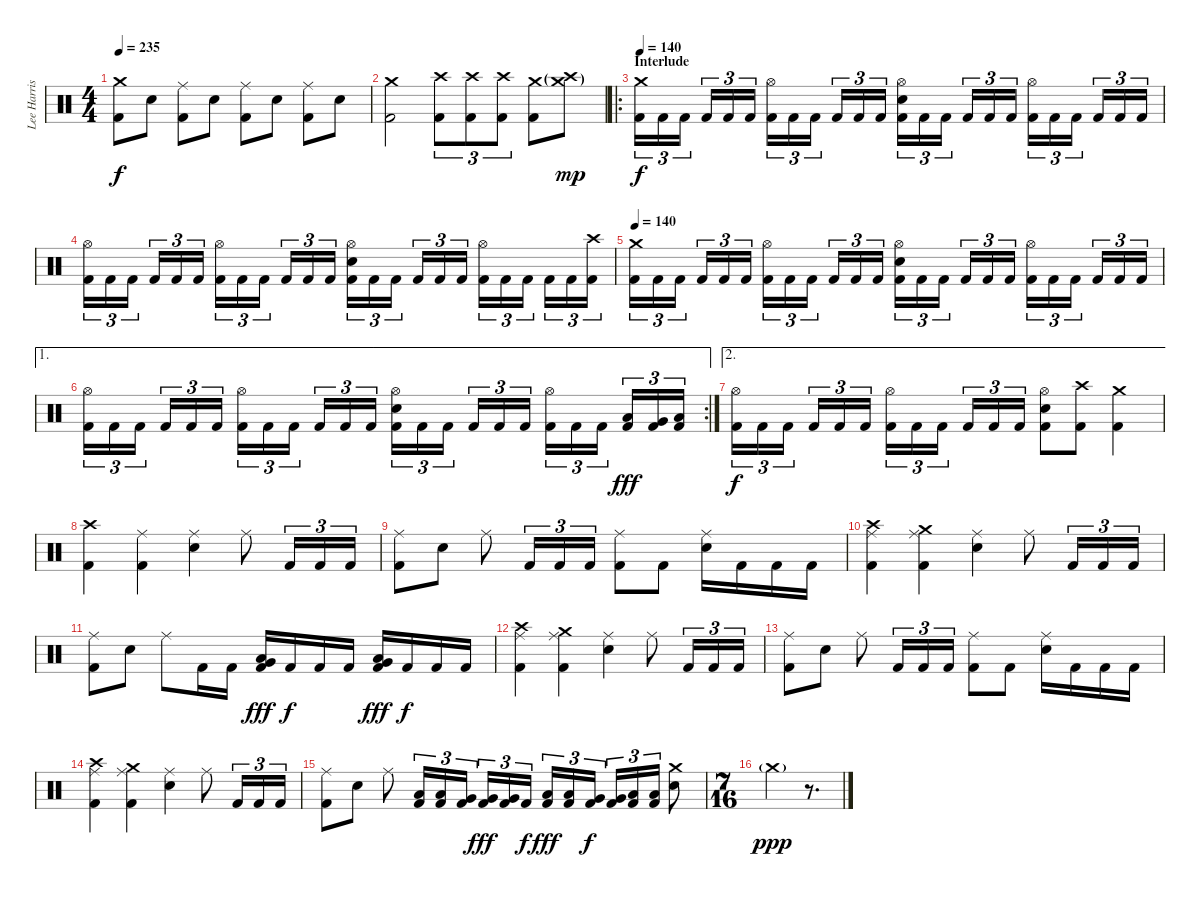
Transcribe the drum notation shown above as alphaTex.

\track ("Lee Harrison" "Lee Harris") {instrument percussion}
\staff {score}
\articulation defaults
\ts (4 4)
\tempo 235
\clef neutral
\ks c
("Crash medium (hit)" "Kick (hit) 2").8{dy f} "Electric Snare (hit)".8 ("Ride (middle)" "Kick (hit) 2").8 "Electric Snare (hit)".8 ("Ride (middle)" "Kick (hit) 2").8 "Electric Snare (hit)".8 ("Ride (middle)" "Kick (hit) 2").8 "Electric Snare (hit)".8 |
("Crash medium (hit)" "Kick (hit) 2").2 ("Crash high (hit)" "Kick (hit) 2").8{tu (3 2)} ("Crash high (hit)" "Kick (hit) 2").8{tu (3 2)} ("Crash high (hit)" "Kick (hit) 2").8{tu (3 2)} ("Crash medium (hit)" "Kick (hit) 2").8 ("Crash medium (hit)"{g} "Crash high (hit)"{g}).8{dy mp} |
\ro
\section ("" "Interlude")
\tempo 140
("Crash medium (hit)" "Kick (hit) 2").16{tu (3 2) dy f} "Kick (hit) 2".16{tu (3 2)} "Kick (hit) 2".16{tu (3 2)} "Kick (hit) 2".16{tu (3 2)} "Kick (hit) 2".16{tu (3 2)} "Kick (hit) 2".16{tu (3 2)} ("Hi-Hat (open)" "Kick (hit) 2").16{tu (3 2)} "Kick (hit) 2".16{tu (3 2)} "Kick (hit) 2".16{tu (3 2)} "Kick (hit) 2".16{tu (3 2)} "Kick (hit) 2".16{tu (3 2)} "Kick (hit) 2".16{tu (3 2)} ("Hi-Hat (open)" "Electric Snare (hit)" "Kick (hit) 2").16{tu (3 2)} "Kick (hit) 2".16{tu (3 2)} "Kick (hit) 2".16{tu (3 2)} "Kick (hit) 2".16{tu (3 2)} "Kick (hit) 2".16{tu (3 2)} "Kick (hit) 2".16{tu (3 2)} ("Hi-Hat (open)" "Kick (hit) 2").16{tu (3 2)} "Kick (hit) 2".16{tu (3 2)} "Kick (hit) 2".16{tu (3 2)} "Kick (hit) 2".16{tu (3 2)} "Kick (hit) 2".16{tu (3 2)} "Kick (hit) 2".16{tu (3 2)} |
("Hi-Hat (open)" "Kick (hit) 2").16{tu (3 2)} "Kick (hit) 2".16{tu (3 2)} "Kick (hit) 2".16{tu (3 2)} "Kick (hit) 2".16{tu (3 2)} "Kick (hit) 2".16{tu (3 2)} "Kick (hit) 2".16{tu (3 2)} ("Hi-Hat (open)" "Kick (hit) 2").16{tu (3 2)} "Kick (hit) 2".16{tu (3 2)} "Kick (hit) 2".16{tu (3 2)} "Kick (hit) 2".16{tu (3 2)} "Kick (hit) 2".16{tu (3 2)} "Kick (hit) 2".16{tu (3 2)} ("Hi-Hat (open)" "Electric Snare (hit)" "Kick (hit) 2").16{tu (3 2)} "Kick (hit) 2".16{tu (3 2)} "Kick (hit) 2".16{tu (3 2)} "Kick (hit) 2".16{tu (3 2)} "Kick (hit) 2".16{tu (3 2)} "Kick (hit) 2".16{tu (3 2)} ("Hi-Hat (open)" "Kick (hit) 2").16{tu (3 2)} "Kick (hit) 2".16{tu (3 2)} "Kick (hit) 2".16{tu (3 2)} "Kick (hit) 2".16{tu (3 2)} "Kick (hit) 2".16{tu (3 2)} ("Crash high (hit)" "Kick (hit) 2").16{tu (3 2)} |
\tempo 140
("Crash medium (hit)" "Kick (hit) 2").16{tu (3 2)} "Kick (hit) 2".16{tu (3 2)} "Kick (hit) 2".16{tu (3 2)} "Kick (hit) 2".16{tu (3 2)} "Kick (hit) 2".16{tu (3 2)} "Kick (hit) 2".16{tu (3 2)} ("Hi-Hat (open)" "Kick (hit) 2").16{tu (3 2)} "Kick (hit) 2".16{tu (3 2)} "Kick (hit) 2".16{tu (3 2)} "Kick (hit) 2".16{tu (3 2)} "Kick (hit) 2".16{tu (3 2)} "Kick (hit) 2".16{tu (3 2)} ("Hi-Hat (open)" "Electric Snare (hit)" "Kick (hit) 2").16{tu (3 2)} "Kick (hit) 2".16{tu (3 2)} "Kick (hit) 2".16{tu (3 2)} "Kick (hit) 2".16{tu (3 2)} "Kick (hit) 2".16{tu (3 2)} "Kick (hit) 2".16{tu (3 2)} ("Hi-Hat (open)" "Kick (hit) 2").16{tu (3 2)} "Kick (hit) 2".16{tu (3 2)} "Kick (hit) 2".16{tu (3 2)} "Kick (hit) 2".16{tu (3 2)} "Kick (hit) 2".16{tu (3 2)} "Kick (hit) 2".16{tu (3 2)} |
\ae 1
\rc 2
("Hi-Hat (open)" "Kick (hit) 2").16{tu (3 2)} "Kick (hit) 2".16{tu (3 2)} "Kick (hit) 2".16{tu (3 2)} "Kick (hit) 2".16{tu (3 2)} "Kick (hit) 2".16{tu (3 2)} "Kick (hit) 2".16{tu (3 2)} ("Hi-Hat (open)" "Kick (hit) 2").16{tu (3 2)} "Kick (hit) 2".16{tu (3 2)} "Kick (hit) 2".16{tu (3 2)} "Kick (hit) 2".16{tu (3 2)} "Kick (hit) 2".16{tu (3 2)} "Kick (hit) 2".16{tu (3 2)} ("Hi-Hat (open)" "Electric Snare (hit)" "Kick (hit) 2").16{tu (3 2)} "Kick (hit) 2".16{tu (3 2)} "Kick (hit) 2".16{tu (3 2)} "Kick (hit) 2".16{tu (3 2)} "Kick (hit) 2".16{tu (3 2)} "Kick (hit) 2".16{tu (3 2)} ("Hi-Hat (open)" "Kick (hit) 2").16{tu (3 2)} "Kick (hit) 2".16{tu (3 2)} "Kick (hit) 2".16{tu (3 2)} ("Low Tom (hit)" "Kick (hit) 2").16{tu (3 2) dy fff} ("Very Low Tom (hit)" "Kick (hit) 2").16{tu (3 2)} ("Low Floor Tom (hit)" "Kick (hit) 2").16{tu (3 2)} |
\ae 2
("Hi-Hat (open)" "Kick (hit) 2").16{tu (3 2) dy f} "Kick (hit) 2".16{tu (3 2)} "Kick (hit) 2".16{tu (3 2)} "Kick (hit) 2".16{tu (3 2)} "Kick (hit) 2".16{tu (3 2)} "Kick (hit) 2".16{tu (3 2)} ("Hi-Hat (open)" "Kick (hit) 2").16{tu (3 2)} "Kick (hit) 2".16{tu (3 2)} "Kick (hit) 2".16{tu (3 2)} "Kick (hit) 2".16{tu (3 2)} "Kick (hit) 2".16{tu (3 2)} "Kick (hit) 2".16{tu (3 2)} ("Hi-Hat (open)" "Electric Snare (hit)" "Kick (hit) 2").8 ("Crash high (hit)" "Kick (hit) 2").8 ("Crash medium (hit)" "Kick (hit) 2").4 |
("Crash high (hit)" "Kick (hit) 2").4 ("Ride (middle)" "Kick (hit) 2").4 ("Ride (middle)" "Electric Snare (hit)").4 "Ride (middle)".8 "Kick (hit) 2".16{tu (3 2)} "Kick (hit) 2".16{tu (3 2)} "Kick (hit) 2".16{tu (3 2)} |
("Ride (middle)" "Kick (hit) 2").8 "Electric Snare (hit)".8 "Ride (middle)".8 "Kick (hit) 2".16{tu (3 2)} "Kick (hit) 2".16{tu (3 2)} "Kick (hit) 2".16{tu (3 2)} ("Ride (middle)" "Kick (hit) 2").8 "Kick (hit) 2".8 ("Ride (middle)" "Electric Snare (hit)").16 "Kick (hit) 2".16 "Kick (hit) 2".16 "Kick (hit) 2".16 |
("Crash high (hit)" "Ride (middle)" "Kick (hit) 2").4 ("Crash medium (hit)" "Ride (middle)" "Kick (hit) 2").4 ("Ride (middle)" "Electric Snare (hit)").4 "Ride (middle)".8 "Kick (hit) 2".16{tu (3 2)} "Kick (hit) 2".16{tu (3 2)} "Kick (hit) 2".16{tu (3 2)} |
("Ride (middle)" "Kick (hit) 2").8 "Electric Snare (hit)".8 "Ride (middle)".8 "Kick (hit) 2".16 "Kick (hit) 2".16 ("Low Tom (hit)" "Very Low Tom (hit)" "Kick (hit) 2").16{dy fff} "Kick (hit) 2".16{dy f} "Kick (hit) 2".16 "Kick (hit) 2".16 ("Very Low Tom (hit)" "Low Floor Tom (hit)" "Kick (hit) 2").16{dy fff} "Kick (hit) 2".16{dy f} "Kick (hit) 2".16 "Kick (hit) 2".16 |
("Crash high (hit)" "Ride (middle)" "Kick (hit) 2").4 ("Crash medium (hit)" "Ride (middle)" "Kick (hit) 2").4 ("Ride (middle)" "Electric Snare (hit)").4 "Ride (middle)".8 "Kick (hit) 2".16{tu (3 2)} "Kick (hit) 2".16{tu (3 2)} "Kick (hit) 2".16{tu (3 2)} |
("Ride (middle)" "Kick (hit) 2").8 "Electric Snare (hit)".8 "Ride (middle)".8 "Kick (hit) 2".16{tu (3 2)} "Kick (hit) 2".16{tu (3 2)} "Kick (hit) 2".16{tu (3 2)} ("Ride (middle)" "Kick (hit) 2").8 "Kick (hit) 2".8 ("Ride (middle)" "Electric Snare (hit)").16 "Kick (hit) 2".16 "Kick (hit) 2".16 "Kick (hit) 2".16 |
("Crash high (hit)" "Ride (middle)" "Kick (hit) 2").4 ("Crash medium (hit)" "Ride (middle)" "Kick (hit) 2").4 ("Ride (middle)" "Electric Snare (hit)").4 "Ride (middle)".8 "Kick (hit) 2".16{tu (3 2)} "Kick (hit) 2".16{tu (3 2)} "Kick (hit) 2".16{tu (3 2)} |
("Ride (middle)" "Kick (hit) 2").8 "Electric Snare (hit)".8 "Ride (middle)".8 ("Low Tom (hit)" "Kick (hit) 2").16{tu (3 2)} ("Low Tom (hit)" "Kick (hit) 2").16{tu (3 2)} ("Very Low Tom (hit)" "Kick (hit) 2").16{tu (3 2)} ("Very Low Tom (hit)" "Kick (hit) 2").16{tu (3 2) dy fff} ("Very Low Tom (hit)" "Kick (hit) 2").16{tu (3 2)} "Kick (hit) 2".16{tu (3 2) dy f} ("Low Tom (hit)" "Kick (hit) 2").16{tu (3 2) dy fff} ("Low Tom (hit)" "Kick (hit) 2").16{tu (3 2)} ("Very Low Tom (hit)" "Kick (hit) 2").16{tu (3 2) dy f} ("Very Low Tom (hit)" "Kick (hit) 2").16{tu (3 2)} ("Low Floor Tom (hit)" "Kick (hit) 2").16{tu (3 2)} ("Low Floor Tom (hit)" "Kick (hit) 2").16{tu (3 2)} ("Crash medium (hit)" "Electric Snare (hit)").8 |
\ts (7 16)
"Crash medium (hit)"{g}.4{dy ppp} r.8{d}
